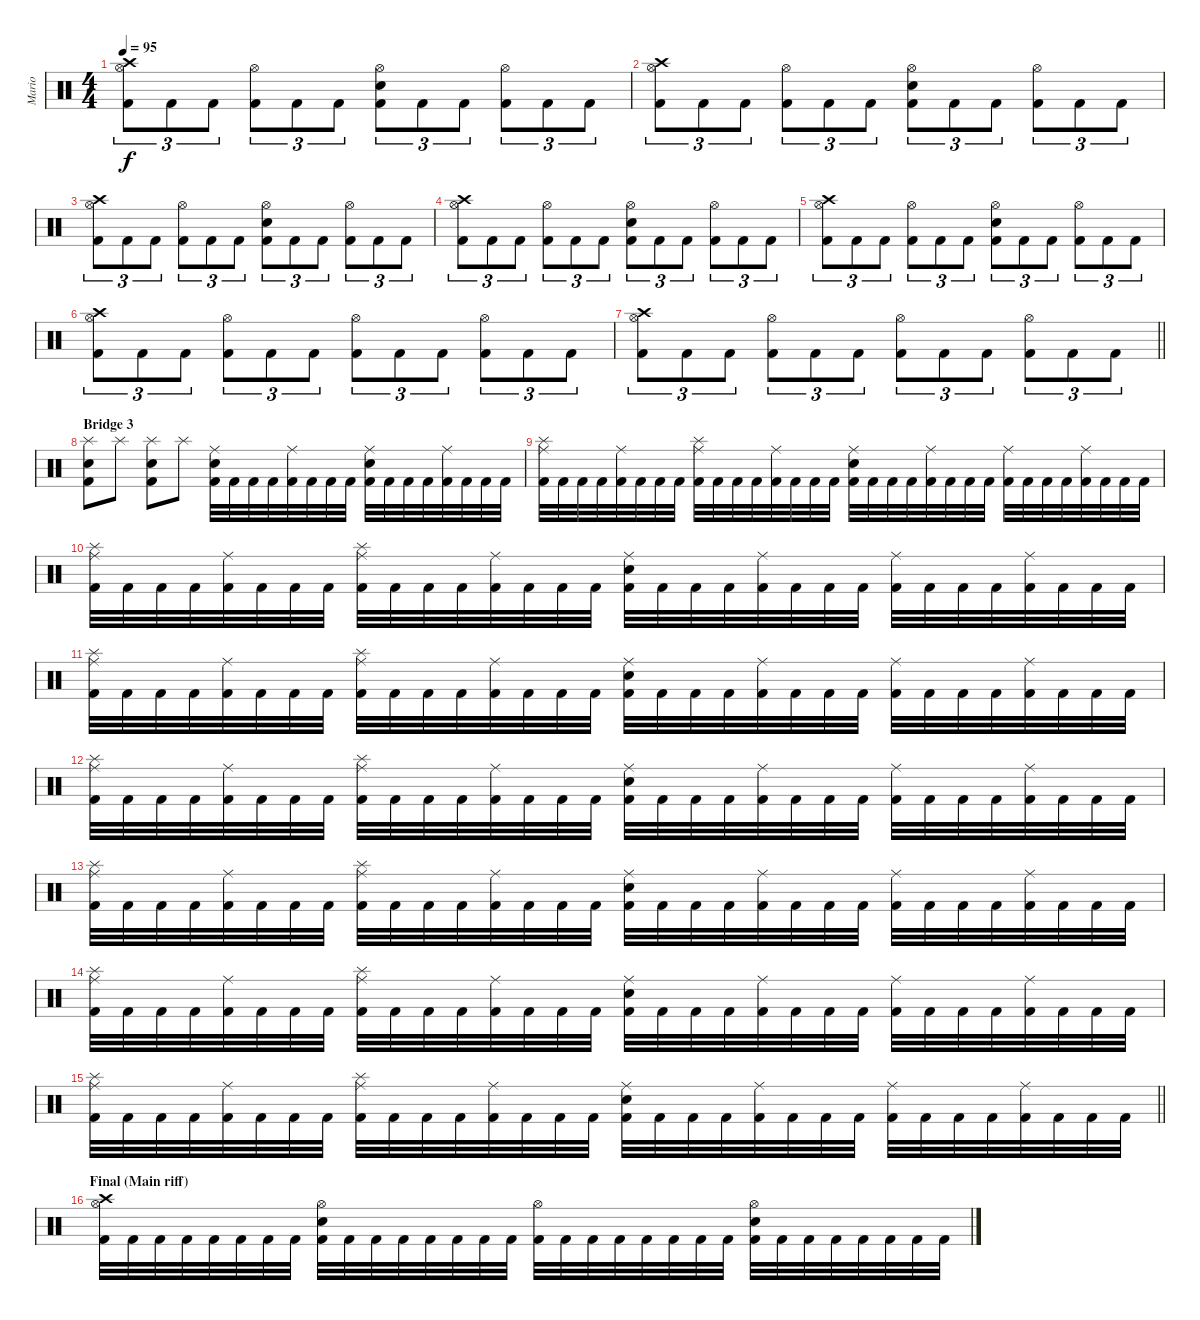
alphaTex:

\track ("Mario" "Mario") {instrument percussion}
\staff {score}
\articulation defaults
\ts (4 4)
\tempo 95
\clef neutral
\ks c
("Crash high (hit)" "Hi-Hat (open)" "Kick (hit) 2").8{tu (3 2) dy f} "Kick (hit) 2".8{tu (3 2)} "Kick (hit) 2".8{tu (3 2)} ("Hi-Hat (open)" "Kick (hit) 2").8{tu (3 2)} "Kick (hit) 2".8{tu (3 2)} "Kick (hit) 2".8{tu (3 2)} ("Hi-Hat (open)" "Electric Snare (hit)" "Kick (hit) 2").8{tu (3 2)} "Kick (hit) 2".8{tu (3 2)} "Kick (hit) 2".8{tu (3 2)} ("Hi-Hat (open)" "Kick (hit) 2").8{tu (3 2)} "Kick (hit) 2".8{tu (3 2)} "Kick (hit) 2".8{tu (3 2)} |
("Crash high (hit)" "Hi-Hat (open)" "Kick (hit) 2").8{tu (3 2)} "Kick (hit) 2".8{tu (3 2)} "Kick (hit) 2".8{tu (3 2)} ("Hi-Hat (open)" "Kick (hit) 2").8{tu (3 2)} "Kick (hit) 2".8{tu (3 2)} "Kick (hit) 2".8{tu (3 2)} ("Hi-Hat (open)" "Electric Snare (hit)" "Kick (hit) 2").8{tu (3 2)} "Kick (hit) 2".8{tu (3 2)} "Kick (hit) 2".8{tu (3 2)} ("Hi-Hat (open)" "Kick (hit) 2").8{tu (3 2)} "Kick (hit) 2".8{tu (3 2)} "Kick (hit) 2".8{tu (3 2)} |
("Crash high (hit)" "Hi-Hat (open)" "Kick (hit) 2").8{tu (3 2)} "Kick (hit) 2".8{tu (3 2)} "Kick (hit) 2".8{tu (3 2)} ("Hi-Hat (open)" "Kick (hit) 2").8{tu (3 2)} "Kick (hit) 2".8{tu (3 2)} "Kick (hit) 2".8{tu (3 2)} ("Hi-Hat (open)" "Electric Snare (hit)" "Kick (hit) 2").8{tu (3 2)} "Kick (hit) 2".8{tu (3 2)} "Kick (hit) 2".8{tu (3 2)} ("Hi-Hat (open)" "Kick (hit) 2").8{tu (3 2)} "Kick (hit) 2".8{tu (3 2)} "Kick (hit) 2".8{tu (3 2)} |
("Crash high (hit)" "Hi-Hat (open)" "Kick (hit) 2").8{tu (3 2)} "Kick (hit) 2".8{tu (3 2)} "Kick (hit) 2".8{tu (3 2)} ("Hi-Hat (open)" "Kick (hit) 2").8{tu (3 2)} "Kick (hit) 2".8{tu (3 2)} "Kick (hit) 2".8{tu (3 2)} ("Hi-Hat (open)" "Electric Snare (hit)" "Kick (hit) 2").8{tu (3 2)} "Kick (hit) 2".8{tu (3 2)} "Kick (hit) 2".8{tu (3 2)} ("Hi-Hat (open)" "Kick (hit) 2").8{tu (3 2)} "Kick (hit) 2".8{tu (3 2)} "Kick (hit) 2".8{tu (3 2)} |
("Crash high (hit)" "Hi-Hat (open)" "Kick (hit) 2").8{tu (3 2)} "Kick (hit) 2".8{tu (3 2)} "Kick (hit) 2".8{tu (3 2)} ("Hi-Hat (open)" "Kick (hit) 2").8{tu (3 2)} "Kick (hit) 2".8{tu (3 2)} "Kick (hit) 2".8{tu (3 2)} ("Hi-Hat (open)" "Electric Snare (hit)" "Kick (hit) 2").8{tu (3 2)} "Kick (hit) 2".8{tu (3 2)} "Kick (hit) 2".8{tu (3 2)} ("Hi-Hat (open)" "Kick (hit) 2").8{tu (3 2)} "Kick (hit) 2".8{tu (3 2)} "Kick (hit) 2".8{tu (3 2)} |
("Crash high (hit)" "Hi-Hat (open)" "Kick (hit) 2").8{tu (3 2)} "Kick (hit) 2".8{tu (3 2)} "Kick (hit) 2".8{tu (3 2)} ("Hi-Hat (open)" "Kick (hit) 2").8{tu (3 2)} "Kick (hit) 2".8{tu (3 2)} "Kick (hit) 2".8{tu (3 2)} ("Hi-Hat (open)" "Kick (hit) 2").8{tu (3 2)} "Kick (hit) 2".8{tu (3 2)} "Kick (hit) 2".8{tu (3 2)} ("Hi-Hat (open)" "Kick (hit) 2").8{tu (3 2)} "Kick (hit) 2".8{tu (3 2)} "Kick (hit) 2".8{tu (3 2)} |
\barLineRight lightlight
("Crash high (hit)" "Hi-Hat (open)" "Kick (hit) 2").8{tu (3 2)} "Kick (hit) 2".8{tu (3 2)} "Kick (hit) 2".8{tu (3 2)} ("Hi-Hat (open)" "Kick (hit) 2").8{tu (3 2)} "Kick (hit) 2".8{tu (3 2)} "Kick (hit) 2".8{tu (3 2)} ("Hi-Hat (open)" "Kick (hit) 2").8{tu (3 2)} "Kick (hit) 2".8{tu (3 2)} "Kick (hit) 2".8{tu (3 2)} ("Hi-Hat (open)" "Kick (hit) 2").8{tu (3 2)} "Kick (hit) 2".8{tu (3 2)} "Kick (hit) 2".8{tu (3 2)} |
\section ("" "Bridge 3")
("Splash (hit)" "Electric Snare (hit)" "Kick (hit) 2").8 "Splash (hit)".8 ("Splash (hit)" "Electric Snare (hit)" "Kick (hit) 2").8 "Splash (hit)".8 ("Ride (middle)" "Electric Snare (hit)" "Kick (hit) 2").32 "Kick (hit) 2".32 "Kick (hit) 2".32 "Kick (hit) 2".32 ("Ride (middle)" "Kick (hit) 2").32 "Kick (hit) 2".32 "Kick (hit) 2".32 "Kick (hit) 2".32 ("Ride (middle)" "Electric Snare (hit)" "Kick (hit) 2").32 "Kick (hit) 2".32 "Kick (hit) 2".32 "Kick (hit) 2".32 ("Ride (middle)" "Kick (hit) 2").32 "Kick (hit) 2".32 "Kick (hit) 2".32 "Kick (hit) 2".32 |
("Ride (middle)" "Splash (hit)" "Kick (hit) 2").32 "Kick (hit) 2".32 "Kick (hit) 2".32 "Kick (hit) 2".32 ("Ride (middle)" "Kick (hit) 2").32 "Kick (hit) 2".32 "Kick (hit) 2".32 "Kick (hit) 2".32 ("Ride (middle)" "Splash (hit)" "Kick (hit) 2").32 "Kick (hit) 2".32 "Kick (hit) 2".32 "Kick (hit) 2".32 ("Ride (middle)" "Kick (hit) 2").32 "Kick (hit) 2".32 "Kick (hit) 2".32 "Kick (hit) 2".32 ("Ride (middle)" "Electric Snare (hit)" "Kick (hit) 2").32 "Kick (hit) 2".32 "Kick (hit) 2".32 "Kick (hit) 2".32 ("Ride (middle)" "Kick (hit) 2").32 "Kick (hit) 2".32 "Kick (hit) 2".32 "Kick (hit) 2".32 ("Ride (middle)" "Kick (hit) 2").32 "Kick (hit) 2".32 "Kick (hit) 2".32 "Kick (hit) 2".32 ("Ride (middle)" "Kick (hit) 2").32 "Kick (hit) 2".32 "Kick (hit) 2".32 "Kick (hit) 2".32 |
("Ride (middle)" "Splash (hit)" "Kick (hit) 2").32 "Kick (hit) 2".32 "Kick (hit) 2".32 "Kick (hit) 2".32 ("Ride (middle)" "Kick (hit) 2").32 "Kick (hit) 2".32 "Kick (hit) 2".32 "Kick (hit) 2".32 ("Ride (middle)" "Splash (hit)" "Kick (hit) 2").32 "Kick (hit) 2".32 "Kick (hit) 2".32 "Kick (hit) 2".32 ("Ride (middle)" "Kick (hit) 2").32 "Kick (hit) 2".32 "Kick (hit) 2".32 "Kick (hit) 2".32 ("Ride (middle)" "Electric Snare (hit)" "Kick (hit) 2").32 "Kick (hit) 2".32 "Kick (hit) 2".32 "Kick (hit) 2".32 ("Ride (middle)" "Kick (hit) 2").32 "Kick (hit) 2".32 "Kick (hit) 2".32 "Kick (hit) 2".32 ("Ride (middle)" "Kick (hit) 2").32 "Kick (hit) 2".32 "Kick (hit) 2".32 "Kick (hit) 2".32 ("Ride (middle)" "Kick (hit) 2").32 "Kick (hit) 2".32 "Kick (hit) 2".32 "Kick (hit) 2".32 |
("Ride (middle)" "Splash (hit)" "Kick (hit) 2").32 "Kick (hit) 2".32 "Kick (hit) 2".32 "Kick (hit) 2".32 ("Ride (middle)" "Kick (hit) 2").32 "Kick (hit) 2".32 "Kick (hit) 2".32 "Kick (hit) 2".32 ("Ride (middle)" "Splash (hit)" "Kick (hit) 2").32 "Kick (hit) 2".32 "Kick (hit) 2".32 "Kick (hit) 2".32 ("Ride (middle)" "Kick (hit) 2").32 "Kick (hit) 2".32 "Kick (hit) 2".32 "Kick (hit) 2".32 ("Ride (middle)" "Electric Snare (hit)" "Kick (hit) 2").32 "Kick (hit) 2".32 "Kick (hit) 2".32 "Kick (hit) 2".32 ("Ride (middle)" "Kick (hit) 2").32 "Kick (hit) 2".32 "Kick (hit) 2".32 "Kick (hit) 2".32 ("Ride (middle)" "Kick (hit) 2").32 "Kick (hit) 2".32 "Kick (hit) 2".32 "Kick (hit) 2".32 ("Ride (middle)" "Kick (hit) 2").32 "Kick (hit) 2".32 "Kick (hit) 2".32 "Kick (hit) 2".32 |
("Ride (middle)" "Splash (hit)" "Kick (hit) 2").32 "Kick (hit) 2".32 "Kick (hit) 2".32 "Kick (hit) 2".32 ("Ride (middle)" "Kick (hit) 2").32 "Kick (hit) 2".32 "Kick (hit) 2".32 "Kick (hit) 2".32 ("Ride (middle)" "Splash (hit)" "Kick (hit) 2").32 "Kick (hit) 2".32 "Kick (hit) 2".32 "Kick (hit) 2".32 ("Ride (middle)" "Kick (hit) 2").32 "Kick (hit) 2".32 "Kick (hit) 2".32 "Kick (hit) 2".32 ("Ride (middle)" "Electric Snare (hit)" "Kick (hit) 2").32 "Kick (hit) 2".32 "Kick (hit) 2".32 "Kick (hit) 2".32 ("Ride (middle)" "Kick (hit) 2").32 "Kick (hit) 2".32 "Kick (hit) 2".32 "Kick (hit) 2".32 ("Ride (middle)" "Kick (hit) 2").32 "Kick (hit) 2".32 "Kick (hit) 2".32 "Kick (hit) 2".32 ("Ride (middle)" "Kick (hit) 2").32 "Kick (hit) 2".32 "Kick (hit) 2".32 "Kick (hit) 2".32 |
("Ride (middle)" "Splash (hit)" "Kick (hit) 2").32 "Kick (hit) 2".32 "Kick (hit) 2".32 "Kick (hit) 2".32 ("Ride (middle)" "Kick (hit) 2").32 "Kick (hit) 2".32 "Kick (hit) 2".32 "Kick (hit) 2".32 ("Ride (middle)" "Splash (hit)" "Kick (hit) 2").32 "Kick (hit) 2".32 "Kick (hit) 2".32 "Kick (hit) 2".32 ("Ride (middle)" "Kick (hit) 2").32 "Kick (hit) 2".32 "Kick (hit) 2".32 "Kick (hit) 2".32 ("Ride (middle)" "Electric Snare (hit)" "Kick (hit) 2").32 "Kick (hit) 2".32 "Kick (hit) 2".32 "Kick (hit) 2".32 ("Ride (middle)" "Kick (hit) 2").32 "Kick (hit) 2".32 "Kick (hit) 2".32 "Kick (hit) 2".32 ("Ride (middle)" "Kick (hit) 2").32 "Kick (hit) 2".32 "Kick (hit) 2".32 "Kick (hit) 2".32 ("Ride (middle)" "Kick (hit) 2").32 "Kick (hit) 2".32 "Kick (hit) 2".32 "Kick (hit) 2".32 |
("Ride (middle)" "Splash (hit)" "Kick (hit) 2").32 "Kick (hit) 2".32 "Kick (hit) 2".32 "Kick (hit) 2".32 ("Ride (middle)" "Kick (hit) 2").32 "Kick (hit) 2".32 "Kick (hit) 2".32 "Kick (hit) 2".32 ("Ride (middle)" "Splash (hit)" "Kick (hit) 2").32 "Kick (hit) 2".32 "Kick (hit) 2".32 "Kick (hit) 2".32 ("Ride (middle)" "Kick (hit) 2").32 "Kick (hit) 2".32 "Kick (hit) 2".32 "Kick (hit) 2".32 ("Ride (middle)" "Electric Snare (hit)" "Kick (hit) 2").32 "Kick (hit) 2".32 "Kick (hit) 2".32 "Kick (hit) 2".32 ("Ride (middle)" "Kick (hit) 2").32 "Kick (hit) 2".32 "Kick (hit) 2".32 "Kick (hit) 2".32 ("Ride (middle)" "Kick (hit) 2").32 "Kick (hit) 2".32 "Kick (hit) 2".32 "Kick (hit) 2".32 ("Ride (middle)" "Kick (hit) 2").32 "Kick (hit) 2".32 "Kick (hit) 2".32 "Kick (hit) 2".32 |
\barLineRight lightlight
("Ride (middle)" "Splash (hit)" "Kick (hit) 2").32 "Kick (hit) 2".32 "Kick (hit) 2".32 "Kick (hit) 2".32 ("Ride (middle)" "Kick (hit) 2").32 "Kick (hit) 2".32 "Kick (hit) 2".32 "Kick (hit) 2".32 ("Ride (middle)" "Splash (hit)" "Kick (hit) 2").32 "Kick (hit) 2".32 "Kick (hit) 2".32 "Kick (hit) 2".32 ("Ride (middle)" "Kick (hit) 2").32 "Kick (hit) 2".32 "Kick (hit) 2".32 "Kick (hit) 2".32 ("Ride (middle)" "Electric Snare (hit)" "Kick (hit) 2").32 "Kick (hit) 2".32 "Kick (hit) 2".32 "Kick (hit) 2".32 ("Ride (middle)" "Kick (hit) 2").32 "Kick (hit) 2".32 "Kick (hit) 2".32 "Kick (hit) 2".32 ("Ride (middle)" "Kick (hit) 2").32 "Kick (hit) 2".32 "Kick (hit) 2".32 "Kick (hit) 2".32 ("Ride (middle)" "Kick (hit) 2").32 "Kick (hit) 2".32 "Kick (hit) 2".32 "Kick (hit) 2".32 |
\section ("" "Final (Main riff)")
("Crash high (hit)" "Hi-Hat (open)" "Kick (hit) 2").32 "Kick (hit) 2".32 "Kick (hit) 2".32 "Kick (hit) 2".32 "Kick (hit) 2".32 "Kick (hit) 2".32 "Kick (hit) 2".32 "Kick (hit) 2".32 ("Hi-Hat (open)" "Electric Snare (hit)" "Kick (hit) 2").32 "Kick (hit) 2".32 "Kick (hit) 2".32 "Kick (hit) 2".32 "Kick (hit) 2".32 "Kick (hit) 2".32 "Kick (hit) 2".32 "Kick (hit) 2".32 ("Hi-Hat (open)" "Kick (hit) 2").32 "Kick (hit) 2".32 "Kick (hit) 2".32 "Kick (hit) 2".32 "Kick (hit) 2".32 "Kick (hit) 2".32 "Kick (hit) 2".32 "Kick (hit) 2".32 ("Hi-Hat (open)" "Electric Snare (hit)" "Kick (hit) 2").32 "Kick (hit) 2".32 "Kick (hit) 2".32 "Kick (hit) 2".32 "Kick (hit) 2".32 "Kick (hit) 2".32 "Kick (hit) 2".32 "Kick (hit) 2".32
